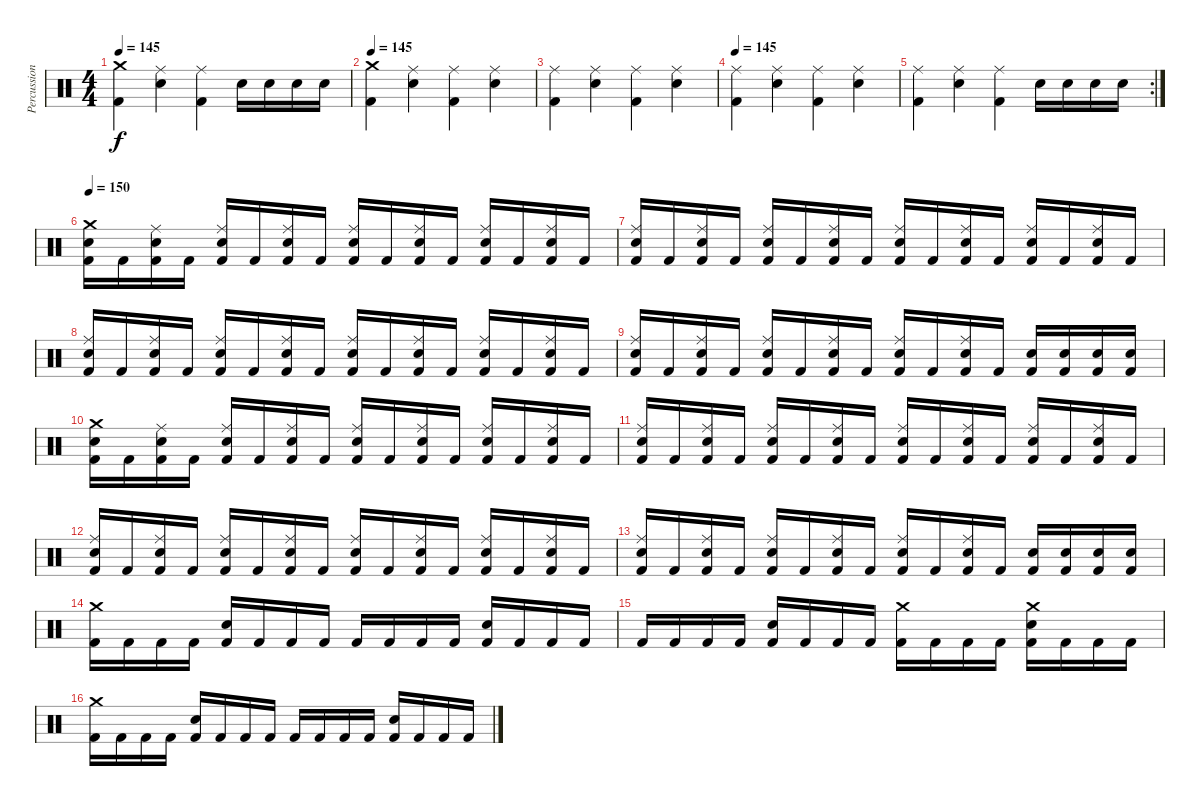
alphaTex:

\track ("Percussions" "Percussion") {instrument percussion}
\staff {score}
\articulation defaults
\ts (4 4)
\tempo 145
\clef neutral
\ks c
("Crash medium (hit)" "Kick (hit) 2").4{dy f} ("Ride (middle)" "Snare (hit) 2").4 ("Ride (middle)" "Kick (hit) 2").4 "Snare (hit) 2".16 "Snare (hit) 2".16 "Snare (hit) 2".16 "Snare (hit) 2".16 |
\tempo 145
("Crash medium (hit)" "Kick (hit) 2").4 ("Ride (middle)" "Snare (hit) 2").4 ("Ride (middle)" "Kick (hit) 2").4 ("Ride (middle)" "Snare (hit) 2").4 |
("Ride (middle)" "Kick (hit) 2").4 ("Ride (middle)" "Snare (hit) 2").4 ("Ride (middle)" "Kick (hit) 2").4 ("Ride (middle)" "Snare (hit) 2").4 |
\tempo 145
("Ride (middle)" "Kick (hit) 2").4 ("Ride (middle)" "Snare (hit) 2").4 ("Ride (middle)" "Kick (hit) 2").4 ("Ride (middle)" "Snare (hit) 2").4 |
\rc 2
("Ride (middle)" "Kick (hit) 2").4 ("Ride (middle)" "Snare (hit) 2").4 ("Ride (middle)" "Kick (hit) 2").4 "Snare (hit) 2".16 "Snare (hit) 2".16 "Snare (hit) 2".16 "Snare (hit) 2".16 |
\tempo 150
("Crash medium (hit)" "Snare (hit) 2" "Kick (hit) 2").16 "Kick (hit) 2".16 ("Ride (middle)" "Snare (hit) 2" "Kick (hit) 2").16 "Kick (hit) 2".16 ("Ride (middle)" "Snare (hit) 2" "Kick (hit) 2").16 "Kick (hit) 2".16 ("Ride (middle)" "Snare (hit) 2" "Kick (hit) 2").16 "Kick (hit) 2".16 ("Ride (middle)" "Snare (hit) 2" "Kick (hit) 2").16 "Kick (hit) 2".16 ("Ride (middle)" "Snare (hit) 2" "Kick (hit) 2").16 "Kick (hit) 2".16 ("Ride (middle)" "Snare (hit) 2" "Kick (hit) 2").16 "Kick (hit) 2".16 ("Ride (middle)" "Snare (hit) 2" "Kick (hit) 2").16 "Kick (hit) 2".16 |
("Ride (middle)" "Snare (hit) 2" "Kick (hit) 2").16 "Kick (hit) 2".16 ("Ride (middle)" "Snare (hit) 2" "Kick (hit) 2").16 "Kick (hit) 2".16 ("Ride (middle)" "Snare (hit) 2" "Kick (hit) 2").16 "Kick (hit) 2".16 ("Ride (middle)" "Snare (hit) 2" "Kick (hit) 2").16 "Kick (hit) 2".16 ("Ride (middle)" "Snare (hit) 2" "Kick (hit) 2").16 "Kick (hit) 2".16 ("Ride (middle)" "Snare (hit) 2" "Kick (hit) 2").16 "Kick (hit) 2".16 ("Ride (middle)" "Snare (hit) 2" "Kick (hit) 2").16 "Kick (hit) 2".16 ("Ride (middle)" "Snare (hit) 2" "Kick (hit) 2").16 "Kick (hit) 2".16 |
("Ride (middle)" "Snare (hit) 2" "Kick (hit) 2").16 "Kick (hit) 2".16 ("Ride (middle)" "Snare (hit) 2" "Kick (hit) 2").16 "Kick (hit) 2".16 ("Ride (middle)" "Snare (hit) 2" "Kick (hit) 2").16 "Kick (hit) 2".16 ("Ride (middle)" "Snare (hit) 2" "Kick (hit) 2").16 "Kick (hit) 2".16 ("Ride (middle)" "Snare (hit) 2" "Kick (hit) 2").16 "Kick (hit) 2".16 ("Ride (middle)" "Snare (hit) 2" "Kick (hit) 2").16 "Kick (hit) 2".16 ("Ride (middle)" "Snare (hit) 2" "Kick (hit) 2").16 "Kick (hit) 2".16 ("Ride (middle)" "Snare (hit) 2" "Kick (hit) 2").16 "Kick (hit) 2".16 |
("Ride (middle)" "Snare (hit) 2" "Kick (hit) 2").16 "Kick (hit) 2".16 ("Ride (middle)" "Snare (hit) 2" "Kick (hit) 2").16 "Kick (hit) 2".16 ("Ride (middle)" "Snare (hit) 2" "Kick (hit) 2").16 "Kick (hit) 2".16 ("Ride (middle)" "Snare (hit) 2" "Kick (hit) 2").16 "Kick (hit) 2".16 ("Ride (middle)" "Snare (hit) 2" "Kick (hit) 2").16 "Kick (hit) 2".16 ("Ride (middle)" "Snare (hit) 2" "Kick (hit) 2").16 "Kick (hit) 2".16 ("Snare (hit) 2" "Kick (hit) 2").16 ("Snare (hit) 2" "Kick (hit) 2").16 ("Snare (hit) 2" "Kick (hit) 2").16 ("Snare (hit) 2" "Kick (hit) 2").16 |
("Crash medium (hit)" "Snare (hit) 2" "Kick (hit) 2").16 "Kick (hit) 2".16 ("Ride (middle)" "Snare (hit) 2" "Kick (hit) 2").16 "Kick (hit) 2".16 ("Ride (middle)" "Snare (hit) 2" "Kick (hit) 2").16 "Kick (hit) 2".16 ("Ride (middle)" "Snare (hit) 2" "Kick (hit) 2").16 "Kick (hit) 2".16 ("Ride (middle)" "Snare (hit) 2" "Kick (hit) 2").16 "Kick (hit) 2".16 ("Ride (middle)" "Snare (hit) 2" "Kick (hit) 2").16 "Kick (hit) 2".16 ("Ride (middle)" "Snare (hit) 2" "Kick (hit) 2").16 "Kick (hit) 2".16 ("Ride (middle)" "Snare (hit) 2" "Kick (hit) 2").16 "Kick (hit) 2".16 |
("Ride (middle)" "Snare (hit) 2" "Kick (hit) 2").16 "Kick (hit) 2".16 ("Ride (middle)" "Snare (hit) 2" "Kick (hit) 2").16 "Kick (hit) 2".16 ("Ride (middle)" "Snare (hit) 2" "Kick (hit) 2").16 "Kick (hit) 2".16 ("Ride (middle)" "Snare (hit) 2" "Kick (hit) 2").16 "Kick (hit) 2".16 ("Ride (middle)" "Snare (hit) 2" "Kick (hit) 2").16 "Kick (hit) 2".16 ("Ride (middle)" "Snare (hit) 2" "Kick (hit) 2").16 "Kick (hit) 2".16 ("Ride (middle)" "Snare (hit) 2" "Kick (hit) 2").16 "Kick (hit) 2".16 ("Ride (middle)" "Snare (hit) 2" "Kick (hit) 2").16 "Kick (hit) 2".16 |
("Ride (middle)" "Snare (hit) 2" "Kick (hit) 2").16 "Kick (hit) 2".16 ("Ride (middle)" "Snare (hit) 2" "Kick (hit) 2").16 "Kick (hit) 2".16 ("Ride (middle)" "Snare (hit) 2" "Kick (hit) 2").16 "Kick (hit) 2".16 ("Ride (middle)" "Snare (hit) 2" "Kick (hit) 2").16 "Kick (hit) 2".16 ("Ride (middle)" "Snare (hit) 2" "Kick (hit) 2").16 "Kick (hit) 2".16 ("Ride (middle)" "Snare (hit) 2" "Kick (hit) 2").16 "Kick (hit) 2".16 ("Ride (middle)" "Snare (hit) 2" "Kick (hit) 2").16 "Kick (hit) 2".16 ("Ride (middle)" "Snare (hit) 2" "Kick (hit) 2").16 "Kick (hit) 2".16 |
("Ride (middle)" "Snare (hit) 2" "Kick (hit) 2").16 "Kick (hit) 2".16 ("Ride (middle)" "Snare (hit) 2" "Kick (hit) 2").16 "Kick (hit) 2".16 ("Ride (middle)" "Snare (hit) 2" "Kick (hit) 2").16 "Kick (hit) 2".16 ("Ride (middle)" "Snare (hit) 2" "Kick (hit) 2").16 "Kick (hit) 2".16 ("Ride (middle)" "Snare (hit) 2" "Kick (hit) 2").16 "Kick (hit) 2".16 ("Ride (middle)" "Snare (hit) 2" "Kick (hit) 2").16 "Kick (hit) 2".16 ("Snare (hit) 2" "Kick (hit) 2").16 ("Snare (hit) 2" "Kick (hit) 2").16 ("Snare (hit) 2" "Kick (hit) 2").16 ("Snare (hit) 2" "Kick (hit) 2").16 |
("Crash medium (hit)" "Kick (hit) 2").16 "Kick (hit) 2".16 "Kick (hit) 2".16 "Kick (hit) 2".16 ("Snare (hit) 2" "Kick (hit) 2").16 "Kick (hit) 2".16 "Kick (hit) 2".16 "Kick (hit) 2".16 "Kick (hit) 2".16 "Kick (hit) 2".16 "Kick (hit) 2".16 "Kick (hit) 2".16 ("Snare (hit) 2" "Kick (hit) 2").16 "Kick (hit) 2".16 "Kick (hit) 2".16 "Kick (hit) 2".16 |
"Kick (hit) 2".16 "Kick (hit) 2".16 "Kick (hit) 2".16 "Kick (hit) 2".16 ("Snare (hit) 2" "Kick (hit) 2").16 "Kick (hit) 2".16 "Kick (hit) 2".16 "Kick (hit) 2".16 ("Crash medium (hit)" "Kick (hit) 2").16 "Kick (hit) 2".16 "Kick (hit) 2".16 "Kick (hit) 2".16 ("Crash medium (hit)" "Snare (hit) 2" "Kick (hit) 2").16 "Kick (hit) 2".16 "Kick (hit) 2".16 "Kick (hit) 2".16 |
("Crash medium (hit)" "Kick (hit) 2").16 "Kick (hit) 2".16 "Kick (hit) 2".16 "Kick (hit) 2".16 ("Snare (hit) 2" "Kick (hit) 2").16 "Kick (hit) 2".16 "Kick (hit) 2".16 "Kick (hit) 2".16 "Kick (hit) 2".16 "Kick (hit) 2".16 "Kick (hit) 2".16 "Kick (hit) 2".16 ("Snare (hit) 2" "Kick (hit) 2").16 "Kick (hit) 2".16 "Kick (hit) 2".16 "Kick (hit) 2".16
